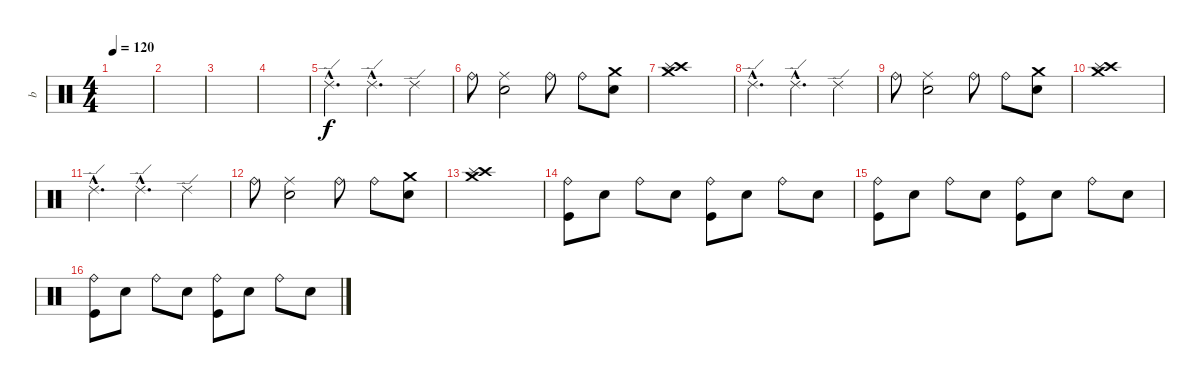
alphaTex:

\track ("b" "b") {instrument percussion}
\staff {score}
\articulation defaults
\ts (4 4)
\tempo 120
\clef neutral
\ks c
|
|
|
|
"Ride (edge) 2"{hac}.4{d} "Ride (edge) 2"{hac}.4{d} "Ride (edge) 2".4 |
"Ride (bell)".8 ("Ride (middle)" "Snare (hit) 2").2 "Ride (bell)".8 "Ride (bell)".8 ("Crash medium (hit)" "Snare (hit) 2").8 |
("Crash medium (hit)" "Crash high (hit)" "Splash (hit)").1 |
"Ride (edge) 2"{hac}.4{d} "Ride (edge) 2"{hac}.4{d} "Ride (edge) 2".4 |
"Ride (bell)".8 ("Ride (middle)" "Snare (hit) 2").2 "Ride (bell)".8 "Ride (bell)".8 ("Crash medium (hit)" "Snare (hit) 2").8 |
("Crash medium (hit)" "Crash high (hit)" "Splash (hit)").1 |
"Ride (edge) 2"{hac}.4{d} "Ride (edge) 2"{hac}.4{d} "Ride (edge) 2".4 |
"Ride (bell)".8 ("Ride (middle)" "Snare (hit) 2").2 "Ride (bell)".8 "Ride (bell)".8 ("Crash medium (hit)" "Snare (hit) 2").8 |
("Crash medium (hit)" "Crash high (hit)" "Splash (hit)").1 |
("Ride (bell)" "Kick (hit)").8 "Electric Snare (hit)".8 "Ride (bell)".8 "Electric Snare (hit)".8 ("Ride (bell)" "Kick (hit)").8 "Electric Snare (hit)".8 "Ride (bell)".8 "Electric Snare (hit)".8 |
("Ride (bell)" "Kick (hit)").8 "Electric Snare (hit)".8 "Ride (bell)".8 "Electric Snare (hit)".8 ("Ride (bell)" "Kick (hit)").8 "Electric Snare (hit)".8 "Ride (bell)".8 "Electric Snare (hit)".8 |
("Ride (bell)" "Kick (hit)").8 "Electric Snare (hit)".8 "Ride (bell)".8 "Electric Snare (hit)".8 ("Ride (bell)" "Kick (hit)").8 "Electric Snare (hit)".8 "Ride (bell)".8 "Electric Snare (hit)".8
